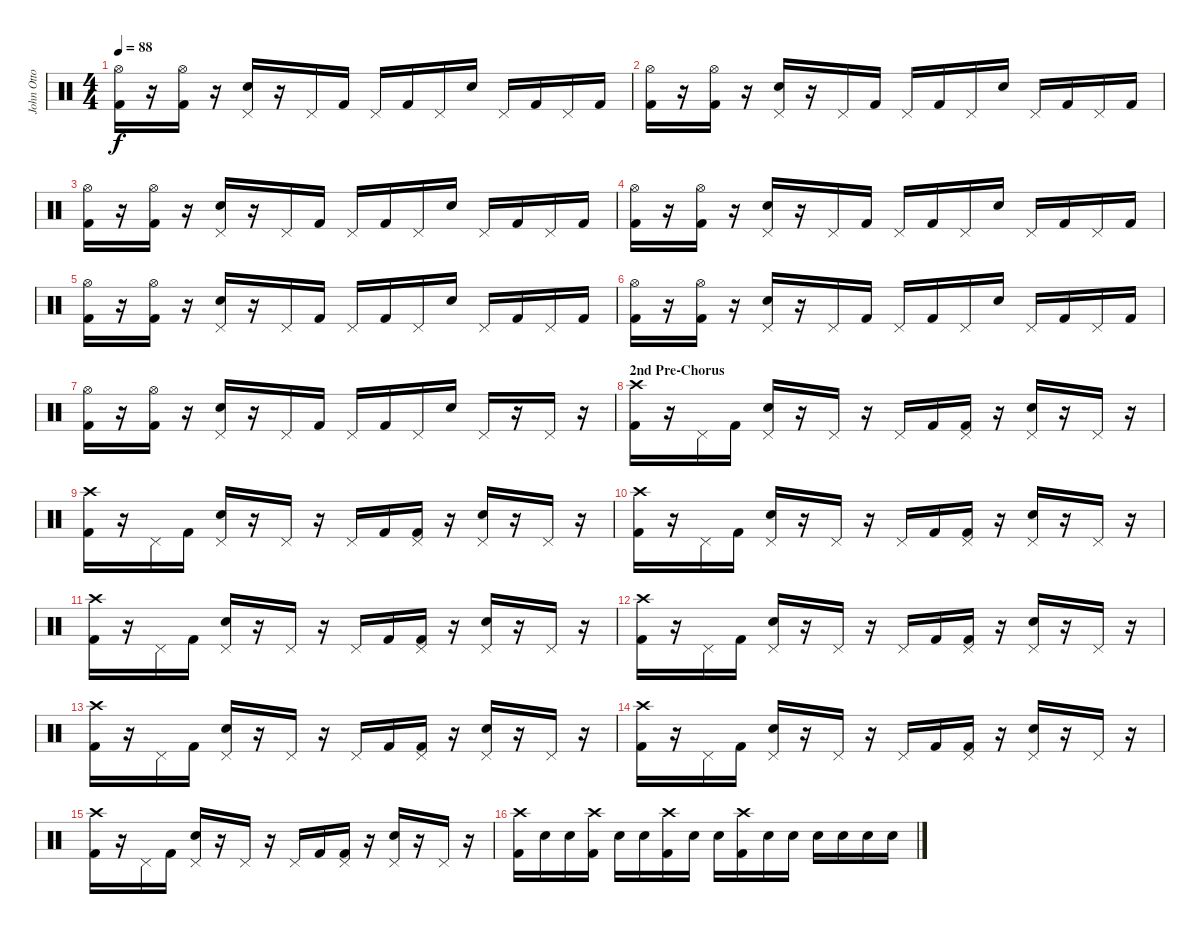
\track ("John Otto" "John Otto") {instrument percussion}
\staff {score}
\articulation defaults
\ts (4 4)
\tempo 88
\clef neutral
\ks c
("Hi-Hat (open)" "Kick (hit) 2").16{dy f} r.16 ("Hi-Hat (open)" "Kick (hit) 2").16 r.16 ("Pedal Hi-Hat (hit)" "Snare (hit) 2").16 r.16 "Pedal Hi-Hat (hit)".16 "Kick (hit) 2".16 "Pedal Hi-Hat (hit)".16 "Kick (hit) 2".16 "Pedal Hi-Hat (hit)".16 "Snare (hit) 2".16 "Pedal Hi-Hat (hit)".16 "Kick (hit) 2".16 "Pedal Hi-Hat (hit)".16 "Kick (hit) 2".16 |
("Hi-Hat (open)" "Kick (hit) 2").16 r.16 ("Hi-Hat (open)" "Kick (hit) 2").16 r.16 ("Pedal Hi-Hat (hit)" "Snare (hit) 2").16 r.16 "Pedal Hi-Hat (hit)".16 "Kick (hit) 2".16 "Pedal Hi-Hat (hit)".16 "Kick (hit) 2".16 "Pedal Hi-Hat (hit)".16 "Snare (hit) 2".16 "Pedal Hi-Hat (hit)".16 "Kick (hit) 2".16 "Pedal Hi-Hat (hit)".16 "Kick (hit) 2".16 |
("Hi-Hat (open)" "Kick (hit) 2").16 r.16 ("Hi-Hat (open)" "Kick (hit) 2").16 r.16 ("Pedal Hi-Hat (hit)" "Snare (hit) 2").16 r.16 "Pedal Hi-Hat (hit)".16 "Kick (hit) 2".16 "Pedal Hi-Hat (hit)".16 "Kick (hit) 2".16 "Pedal Hi-Hat (hit)".16 "Snare (hit) 2".16 "Pedal Hi-Hat (hit)".16 "Kick (hit) 2".16 "Pedal Hi-Hat (hit)".16 "Kick (hit) 2".16 |
("Hi-Hat (open)" "Kick (hit) 2").16 r.16 ("Hi-Hat (open)" "Kick (hit) 2").16 r.16 ("Pedal Hi-Hat (hit)" "Snare (hit) 2").16 r.16 "Pedal Hi-Hat (hit)".16 "Kick (hit) 2".16 "Pedal Hi-Hat (hit)".16 "Kick (hit) 2".16 "Pedal Hi-Hat (hit)".16 "Snare (hit) 2".16 "Pedal Hi-Hat (hit)".16 "Kick (hit) 2".16 "Pedal Hi-Hat (hit)".16 "Kick (hit) 2".16 |
("Hi-Hat (open)" "Kick (hit) 2").16 r.16 ("Hi-Hat (open)" "Kick (hit) 2").16 r.16 ("Pedal Hi-Hat (hit)" "Snare (hit) 2").16 r.16 "Pedal Hi-Hat (hit)".16 "Kick (hit) 2".16 "Pedal Hi-Hat (hit)".16 "Kick (hit) 2".16 "Pedal Hi-Hat (hit)".16 "Snare (hit) 2".16 "Pedal Hi-Hat (hit)".16 "Kick (hit) 2".16 "Pedal Hi-Hat (hit)".16 "Kick (hit) 2".16 |
("Hi-Hat (open)" "Kick (hit) 2").16 r.16 ("Hi-Hat (open)" "Kick (hit) 2").16 r.16 ("Pedal Hi-Hat (hit)" "Snare (hit) 2").16 r.16 "Pedal Hi-Hat (hit)".16 "Kick (hit) 2".16 "Pedal Hi-Hat (hit)".16 "Kick (hit) 2".16 "Pedal Hi-Hat (hit)".16 "Snare (hit) 2".16 "Pedal Hi-Hat (hit)".16 "Kick (hit) 2".16 "Pedal Hi-Hat (hit)".16 "Kick (hit) 2".16 |
("Hi-Hat (open)" "Kick (hit) 2").16 r.16 ("Hi-Hat (open)" "Kick (hit) 2").16 r.16 ("Pedal Hi-Hat (hit)" "Snare (hit) 2").16 r.16 "Pedal Hi-Hat (hit)".16 "Kick (hit) 2".16 "Pedal Hi-Hat (hit)".16 "Kick (hit) 2".16 "Pedal Hi-Hat (hit)".16 "Snare (hit) 2".16 "Pedal Hi-Hat (hit)".16 r.16 "Pedal Hi-Hat (hit)".16 r.16 |
\section ("" "2nd Pre-Chorus")
("Crash high (hit)" "Kick (hit) 2").16 r.16 "Pedal Hi-Hat (hit)".16 "Kick (hit) 2".16 ("Pedal Hi-Hat (hit)" "Snare (hit) 2").16 r.16 "Pedal Hi-Hat (hit)".16 r.16 "Pedal Hi-Hat (hit)".16 "Kick (hit) 2".16 ("Pedal Hi-Hat (hit)" "Kick (hit) 2").16 r.16 ("Pedal Hi-Hat (hit)" "Snare (hit) 2").16 r.16 "Pedal Hi-Hat (hit)".16 r.16 |
("Crash high (hit)" "Kick (hit) 2").16 r.16 "Pedal Hi-Hat (hit)".16 "Kick (hit) 2".16 ("Pedal Hi-Hat (hit)" "Snare (hit) 2").16 r.16 "Pedal Hi-Hat (hit)".16 r.16 "Pedal Hi-Hat (hit)".16 "Kick (hit) 2".16 ("Pedal Hi-Hat (hit)" "Kick (hit) 2").16 r.16 ("Pedal Hi-Hat (hit)" "Snare (hit) 2").16 r.16 "Pedal Hi-Hat (hit)".16 r.16 |
("Crash high (hit)" "Kick (hit) 2").16 r.16 "Pedal Hi-Hat (hit)".16 "Kick (hit) 2".16 ("Pedal Hi-Hat (hit)" "Snare (hit) 2").16 r.16 "Pedal Hi-Hat (hit)".16 r.16 "Pedal Hi-Hat (hit)".16 "Kick (hit) 2".16 ("Pedal Hi-Hat (hit)" "Kick (hit) 2").16 r.16 ("Pedal Hi-Hat (hit)" "Snare (hit) 2").16 r.16 "Pedal Hi-Hat (hit)".16 r.16 |
("Crash high (hit)" "Kick (hit) 2").16 r.16 "Pedal Hi-Hat (hit)".16 "Kick (hit) 2".16 ("Pedal Hi-Hat (hit)" "Snare (hit) 2").16 r.16 "Pedal Hi-Hat (hit)".16 r.16 "Pedal Hi-Hat (hit)".16 "Kick (hit) 2".16 ("Pedal Hi-Hat (hit)" "Kick (hit) 2").16 r.16 ("Pedal Hi-Hat (hit)" "Snare (hit) 2").16 r.16 "Pedal Hi-Hat (hit)".16 r.16 |
("Crash high (hit)" "Kick (hit) 2").16 r.16 "Pedal Hi-Hat (hit)".16 "Kick (hit) 2".16 ("Pedal Hi-Hat (hit)" "Snare (hit) 2").16 r.16 "Pedal Hi-Hat (hit)".16 r.16 "Pedal Hi-Hat (hit)".16 "Kick (hit) 2".16 ("Pedal Hi-Hat (hit)" "Kick (hit) 2").16 r.16 ("Pedal Hi-Hat (hit)" "Snare (hit) 2").16 r.16 "Pedal Hi-Hat (hit)".16 r.16 |
("Crash high (hit)" "Kick (hit) 2").16 r.16 "Pedal Hi-Hat (hit)".16 "Kick (hit) 2".16 ("Pedal Hi-Hat (hit)" "Snare (hit) 2").16 r.16 "Pedal Hi-Hat (hit)".16 r.16 "Pedal Hi-Hat (hit)".16 "Kick (hit) 2".16 ("Pedal Hi-Hat (hit)" "Kick (hit) 2").16 r.16 ("Pedal Hi-Hat (hit)" "Snare (hit) 2").16 r.16 "Pedal Hi-Hat (hit)".16 r.16 |
("Crash high (hit)" "Kick (hit) 2").16 r.16 "Pedal Hi-Hat (hit)".16 "Kick (hit) 2".16 ("Pedal Hi-Hat (hit)" "Snare (hit) 2").16 r.16 "Pedal Hi-Hat (hit)".16 r.16 "Pedal Hi-Hat (hit)".16 "Kick (hit) 2".16 ("Pedal Hi-Hat (hit)" "Kick (hit) 2").16 r.16 ("Pedal Hi-Hat (hit)" "Snare (hit) 2").16 r.16 "Pedal Hi-Hat (hit)".16 r.16 |
("Crash high (hit)" "Kick (hit) 2").16 r.16 "Pedal Hi-Hat (hit)".16 "Kick (hit) 2".16 ("Pedal Hi-Hat (hit)" "Snare (hit) 2").16 r.16 "Pedal Hi-Hat (hit)".16 r.16 "Pedal Hi-Hat (hit)".16 "Kick (hit) 2".16 ("Pedal Hi-Hat (hit)" "Kick (hit) 2").16 r.16 ("Pedal Hi-Hat (hit)" "Snare (hit) 2").16 r.16 "Pedal Hi-Hat (hit)".16 r.16 |
("Crash high (hit)" "Kick (hit) 2").16 "Snare (hit) 2".16 "Snare (hit) 2".16 ("Crash high (hit)" "Kick (hit) 2").16 "Snare (hit) 2".16 "Snare (hit) 2".16 ("Crash high (hit)" "Kick (hit) 2").16 "Snare (hit) 2".16 "Snare (hit) 2".16 ("Crash high (hit)" "Kick (hit) 2").16 "Snare (hit) 2".16 "Snare (hit) 2".16 "Snare (hit) 2".16 "Snare (hit) 2".16 "Snare (hit) 2".16 "Snare (hit) 2".16
